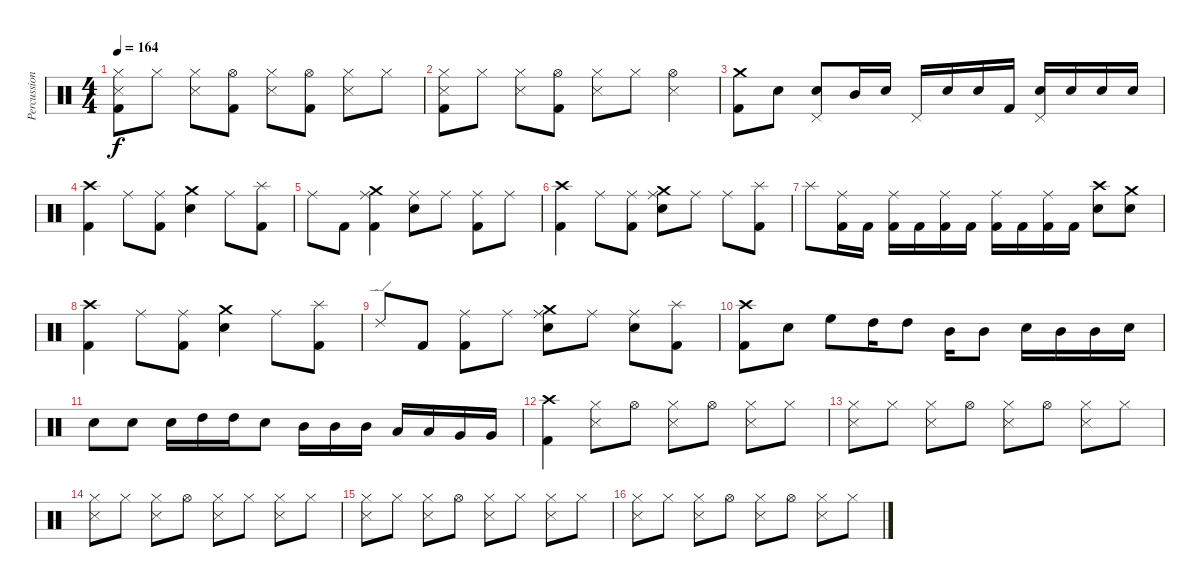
\track ("Percussion" "Percussion") {instrument percussion}
\staff {score}
\articulation defaults
\ts (4 4)
\tempo 164
\clef neutral
\ks c
("Snare (side stick) 3" "Hi-Hat (closed)" "Kick (hit) 2").8{dy f} "Hi-Hat (closed)".8 ("Snare (side stick) 3" "Hi-Hat (closed)").8 ("Hi-Hat (open)" "Kick (hit) 2").8 ("Snare (side stick) 3" "Hi-Hat (closed)").8 ("Hi-Hat (open)" "Kick (hit) 2").8 ("Snare (side stick) 3" "Hi-Hat (closed)").8 "Hi-Hat (closed)".8 |
("Snare (side stick) 3" "Hi-Hat (closed)" "Kick (hit) 2").8 "Hi-Hat (closed)".8 ("Snare (side stick) 3" "Hi-Hat (closed)").8 ("Hi-Hat (open)" "Kick (hit) 2").8 ("Snare (side stick) 3" "Hi-Hat (closed)").8 "Hi-Hat (closed)".8 ("Snare (side stick) 3" "Hi-Hat (open)").4 |
("Crash medium (hit)" "Kick (hit) 2").8 "Electric Snare (hit)".8 ("Electric Snare (hit)" "Pedal Hi-Hat (hit)").8 "Mid Tom (hit)".16 "Electric Snare (hit)".16 "Pedal Hi-Hat (hit)".16 "Electric Snare (hit)".16 "Electric Snare (hit)".16 "Kick (hit) 2".16 ("Electric Snare (hit)" "Pedal Hi-Hat (hit)").16 "Electric Snare (hit)".16 "Electric Snare (hit)".16 "Electric Snare (hit)".16 |
("Crash high (hit)" "Kick (hit) 2").4 "Ride (middle)".8 ("Ride (middle)" "Kick (hit) 2").8 ("Crash medium (hit)" "Electric Snare (hit)").4 "Ride (middle)".8 ("Splash (hit)" "Kick (hit) 2").8 |
"Ride (middle)".8 "Kick (hit) 2".8 ("Crash medium (hit)" "Ride (middle)" "Kick (hit) 2").4 ("Ride (middle)" "Electric Snare (hit)").8 "Ride (middle)".8 ("Ride (middle)" "Kick (hit) 2").8 "Ride (middle)".8 |
("Crash high (hit)" "Kick (hit) 2").4 "Ride (middle)".8 ("Ride (middle)" "Kick (hit) 2").8 ("Crash medium (hit)" "Ride (middle)" "Electric Snare (hit)").8 "Ride (middle)".8 "Ride (middle)".8 ("Splash (hit)" "Kick (hit) 2").8 |
"Splash (hit)".8 ("Ride (middle)" "Kick (hit) 2").16 "Kick (hit) 2".16 ("Ride (middle)" "Kick (hit) 2").16 "Kick (hit) 2".16 ("Ride (middle)" "Kick (hit) 2").16 "Kick (hit) 2".16 ("Ride (middle)" "Kick (hit) 2").16 "Kick (hit) 2".16 ("Ride (middle)" "Kick (hit) 2").16 "Kick (hit) 2".16 ("Crash high (hit)" "Electric Snare (hit)").8 ("Crash medium (hit)" "Electric Snare (hit)").8 |
("Crash high (hit)" "Kick (hit) 2").4 "Ride (middle)".8 ("Ride (middle)" "Kick (hit) 2").8 ("Crash medium (hit)" "Electric Snare (hit)").4 "Ride (middle)".8 ("Splash (hit)" "Kick (hit) 2").8 |
"Ride (edge) 2".8 "Kick (hit) 2".8 ("Ride (middle)" "Kick (hit) 2").8 "Ride (middle)".8 ("Crash medium (hit)" "Ride (middle)" "Electric Snare (hit)").8 "Ride (middle)".8 ("Ride (middle)" "Electric Snare (hit)").8 ("Splash (hit)" "Kick (hit) 2").8 |
("Crash high (hit)" "Kick (hit) 2").8 "Electric Snare (hit)".8 "High Floor Tom (hit)".8 "High Tom (hit)".16 "High Tom (hit)".8 "Mid Tom (hit)".16 "Mid Tom (hit)".8 "Electric Snare (hit)".16 "Mid Tom (hit)".16 "Mid Tom (hit)".16 "Electric Snare (hit)".16 |
"Electric Snare (hit)".8 "Electric Snare (hit)".8 "Electric Snare (hit)".16 "High Tom (hit)".16 "High Tom (hit)".16 "Electric Snare (hit)".8 "Mid Tom (hit)".16 "Mid Tom (hit)".16 "Mid Tom (hit)".16 "Low Tom (hit)".16 "Low Tom (hit)".16 "Very Low Tom (hit)".16 "Very Low Tom (hit)".16 |
("Crash high (hit)" "Kick (hit) 2").4 ("Snare (side stick) 3" "Hi-Hat (closed)").8 "Hi-Hat (open)".8 ("Snare (side stick) 3" "Hi-Hat (closed)").8 "Hi-Hat (open)".8 ("Snare (side stick) 3" "Hi-Hat (closed)").8 "Hi-Hat (closed)".8 |
("Snare (side stick) 3" "Hi-Hat (closed)").8 "Hi-Hat (closed)".8 ("Snare (side stick) 3" "Hi-Hat (closed)").8 "Hi-Hat (open)".8 ("Snare (side stick) 3" "Hi-Hat (closed)").8 "Hi-Hat (open)".8 ("Snare (side stick) 3" "Hi-Hat (closed)").8 "Hi-Hat (closed)".8 |
("Snare (side stick) 3" "Hi-Hat (closed)").8 "Hi-Hat (closed)".8 ("Snare (side stick) 3" "Hi-Hat (closed)").8 "Hi-Hat (open)".8 ("Snare (side stick) 3" "Hi-Hat (closed)").8 "Hi-Hat (closed)".8 ("Snare (side stick) 3" "Hi-Hat (closed)").8 "Hi-Hat (closed)".8 |
("Snare (side stick) 3" "Hi-Hat (closed)").8 "Hi-Hat (closed)".8 ("Snare (side stick) 3" "Hi-Hat (closed)").8 "Hi-Hat (open)".8 ("Snare (side stick) 3" "Hi-Hat (closed)").8 "Hi-Hat (closed)".8 ("Snare (side stick) 3" "Hi-Hat (closed)").8 "Hi-Hat (closed)".8 |
("Snare (side stick) 3" "Hi-Hat (closed)").8 "Hi-Hat (closed)".8 ("Snare (side stick) 3" "Hi-Hat (closed)").8 "Hi-Hat (open)".8 ("Snare (side stick) 3" "Hi-Hat (closed)").8 "Hi-Hat (open)".8 ("Snare (side stick) 3" "Hi-Hat (closed)").8 "Hi-Hat (closed)".8
